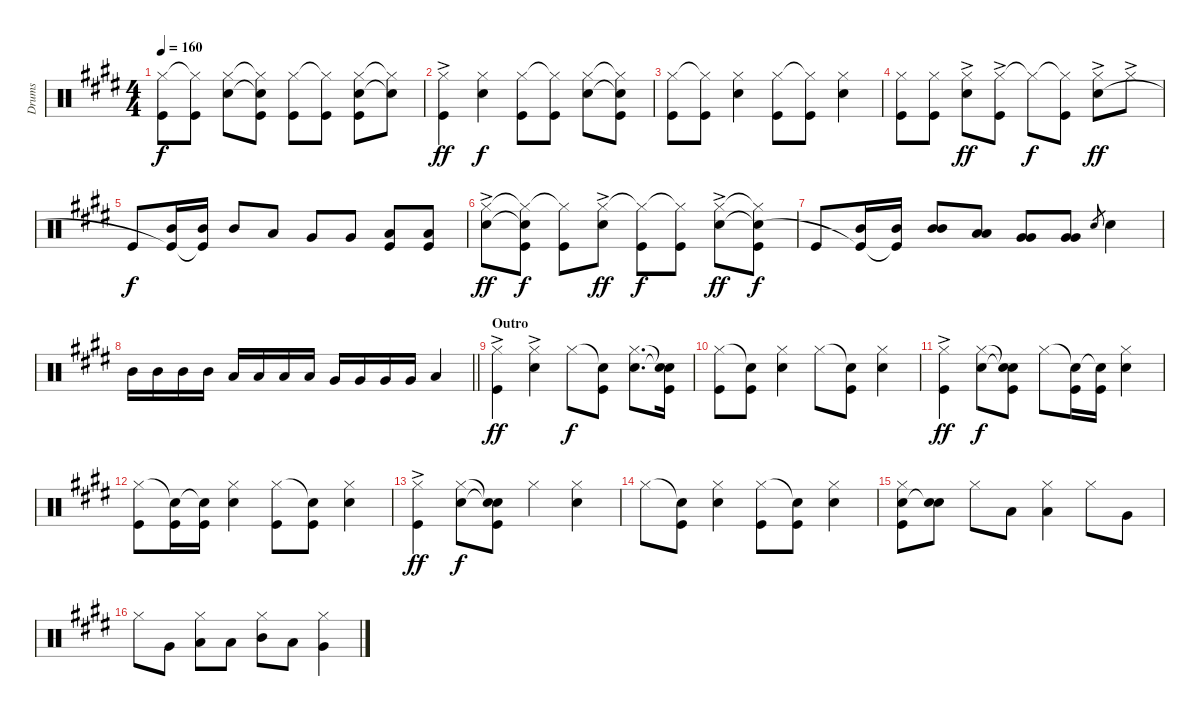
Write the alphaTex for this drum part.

\track ("Drums" "Drums") {instrument percussion}
\staff {score}
\articulation defaults
\ts (4 4)
\tempo 160
\clef neutral
\ks e
("Hi-Hat (closed)" "Kick (hit)").8{dy f} ("Hi-Hat (closed)"{t} "Kick (hit)").8 ("Hi-Hat (closed)" "Snare (hit) 2").8 ("Hi-Hat (closed)"{t} "Snare (hit) 2"{t} "Kick (hit)").8 ("Hi-Hat (closed)" "Kick (hit)").8 ("Hi-Hat (closed)"{t} "Kick (hit)").8 ("Hi-Hat (closed)" "Snare (hit) 2" "Kick (hit)").8 ("Hi-Hat (closed)"{t} "Snare (hit) 2"{t}).8 |
("Hi-Hat (closed)"{ac} "Kick (hit)").4{dy ff} ("Hi-Hat (closed)" "Snare (hit) 2").4{dy f} ("Hi-Hat (closed)" "Kick (hit)").8 ("Hi-Hat (closed)"{t} "Kick (hit)").8 ("Hi-Hat (closed)" "Snare (hit) 2").8 ("Hi-Hat (closed)"{t} "Snare (hit) 2"{t} "Kick (hit)").8 |
("Hi-Hat (closed)" "Kick (hit)").8 ("Hi-Hat (closed)"{t} "Kick (hit)").8 ("Hi-Hat (closed)" "Snare (hit) 2").4 ("Hi-Hat (closed)" "Kick (hit)").8 ("Hi-Hat (closed)"{t} "Kick (hit)").8 ("Hi-Hat (closed)" "Snare (hit) 2").4 |
("Hi-Hat (closed)" "Kick (hit)").8 ("Hi-Hat (closed)" "Kick (hit)").8 ("Hi-Hat (closed)"{ac} "Snare (hit) 2").8{dy ff} ("Hi-Hat (closed)"{ac} "Kick (hit)").8 "Hi-Hat (closed)"{t}.8{dy f} ("Hi-Hat (closed)"{t} "Kick (hit)").8 ("Hi-Hat (closed)"{ac} "Snare (hit) 2").8{dy ff} "Hi-Hat (closed)"{ac}.8 |
"Kick (hit)".8{dy f} ("Mid Tom (hit)" "Kick (hit)"{t}).16 ("Mid Tom (hit)" "Kick (hit)"{t}).16 "Mid Tom (hit)".8 "Low Tom (hit)".8 "Very Low Tom (hit)".8 "Very Low Tom (hit)".8 ("Low Floor Tom (hit)" "Kick (hit)").8 ("Low Floor Tom (hit)" "Kick (hit)").8 |
("Hi-Hat (closed)"{ac} "Snare (hit) 2").8{dy ff} ("Hi-Hat (closed)"{t} "Snare (hit)"{t} "Kick (hit)").8{dy f} ("Hi-Hat (closed)"{t} "Kick (hit)").8 ("Hi-Hat (closed)"{ac} "Snare (hit) 2").8{dy ff} ("Hi-Hat (closed)"{t} "Kick (hit)").8{dy f} ("Hi-Hat (closed)"{t} "Kick (hit)").8 ("Hi-Hat (closed)"{ac} "Snare (hit) 2").8{dy ff} ("Hi-Hat (closed)"{t} "Snare (hit) 2"{t} "Kick (hit)").8{dy f} |
"Kick (hit)".8 ("Mid Tom (hit)" "Kick (hit)"{t}).16 ("Mid Tom (hit)" "Kick (hit)"{t}).16 ("Mid Tom (hit)" "Mid Tom (hit)").8 ("Low Tom (hit)" "Low Tom (hit)").8 ("Very Low Tom (hit)" "Very Low Tom (hit)").8 ("Very Low Tom (hit)" "Very Low Tom (hit)").8 "Snare (hit) 2".8{gr} "Snare (hit) 2".4 |
\barLineRight lightlight "Mid Tom (hit)".16 "Mid Tom (hit)".16 "Mid Tom (hit)".16 "Mid Tom (hit)".16 "Low Tom (hit)".16 "Low Tom (hit)".16 "Low Tom (hit)".16 "Low Tom (hit)".16 "Very Low Tom (hit)".16 "Very Low Tom (hit)".16 "Very Low Tom (hit)".16 "Very Low Tom (hit)".16 "Low Floor Tom (hit)".4
|
\section ("" "Outro")
("Hi-Hat (closed)"{ac} "Kick (hit)").4{dy ff} ("Hi-Hat (closed)"{ac} "Snare (hit) 2").4 "Hi-Hat (closed)".8{dy f} ("Snare (hit)"{t} "Kick (hit)").8 ("Hi-Hat (closed)" "Snare (hit) 2").8{d} ("Snare (hit)"{t} "Snare (hit)"{t} "Kick (hit)").16 |
("Hi-Hat (closed)" "Kick (hit)").8 ("Snare (hit)"{t} "Kick (hit)").8 ("Hi-Hat (closed)" "Snare (hit) 2").4 "Hi-Hat (closed)".8 ("Snare (hit)"{t} "Kick (hit)").8 ("Hi-Hat (closed)" "Snare (hit) 2").4 |
("Hi-Hat (closed)"{ac} "Kick (hit)").4{dy ff} ("Hi-Hat (closed)" "Snare (hit) 2").8{dy f} ("Snare (hit)"{t} "Snare (hit)"{t} "Kick (hit)").8 "Hi-Hat (closed)".8 ("Snare (hit)"{t} "Kick (hit)").16 ("Snare (hit)"{t} "Kick (hit)").16 ("Hi-Hat (closed)" "Snare (hit) 2").4 |
("Hi-Hat (closed)" "Kick (hit)").8 ("Snare (hit)"{t} "Kick (hit)").16 ("Snare (hit)"{t} "Kick (hit)").16 ("Hi-Hat (closed)" "Snare (hit) 2").4 ("Hi-Hat (closed)" "Kick (hit)").8 ("Snare (hit)"{t} "Kick (hit)").8 ("Hi-Hat (closed)" "Snare (hit) 2").4 |
("Hi-Hat (closed)"{ac} "Kick (hit)").4{dy ff} ("Hi-Hat (closed)" "Snare (hit) 2").8{dy f} ("Snare (hit)"{t} "Snare (hit)"{t} "Kick (hit)").8 "Hi-Hat (closed)".4 ("Hi-Hat (closed)" "Snare (hit) 2").4 |
"Hi-Hat (closed)".8 ("Snare (hit)"{t} "Kick (hit)").8 ("Hi-Hat (closed)" "Snare (hit) 2").4 ("Hi-Hat (closed)" "Kick (hit)").8 ("Snare (hit)"{t} "Kick (hit)").8 ("Hi-Hat (closed)" "Snare (hit) 2").4 |
("Hi-Hat (closed)" "Snare (hit) 2" "Kick (hit)").8 ("Snare (hit) 2" "Snare (hit)"{t}).8 "Hi-Hat (closed)".8 "Low Tom (hit)".8 ("Hi-Hat (closed)" "Low Tom (hit)").4 "Hi-Hat (closed)".8 "Very Low Tom (hit)".8 |
"Hi-Hat (closed)".8 "Very Low Tom (hit)".8 ("Hi-Hat (closed)" "Low Tom (hit)").8 "Low Tom (hit)".8 ("Hi-Hat (closed)" "Mid Tom (hit)").8 "Low Tom (hit)".8 ("Hi-Hat (closed)" "Very Low Tom (hit)").4
